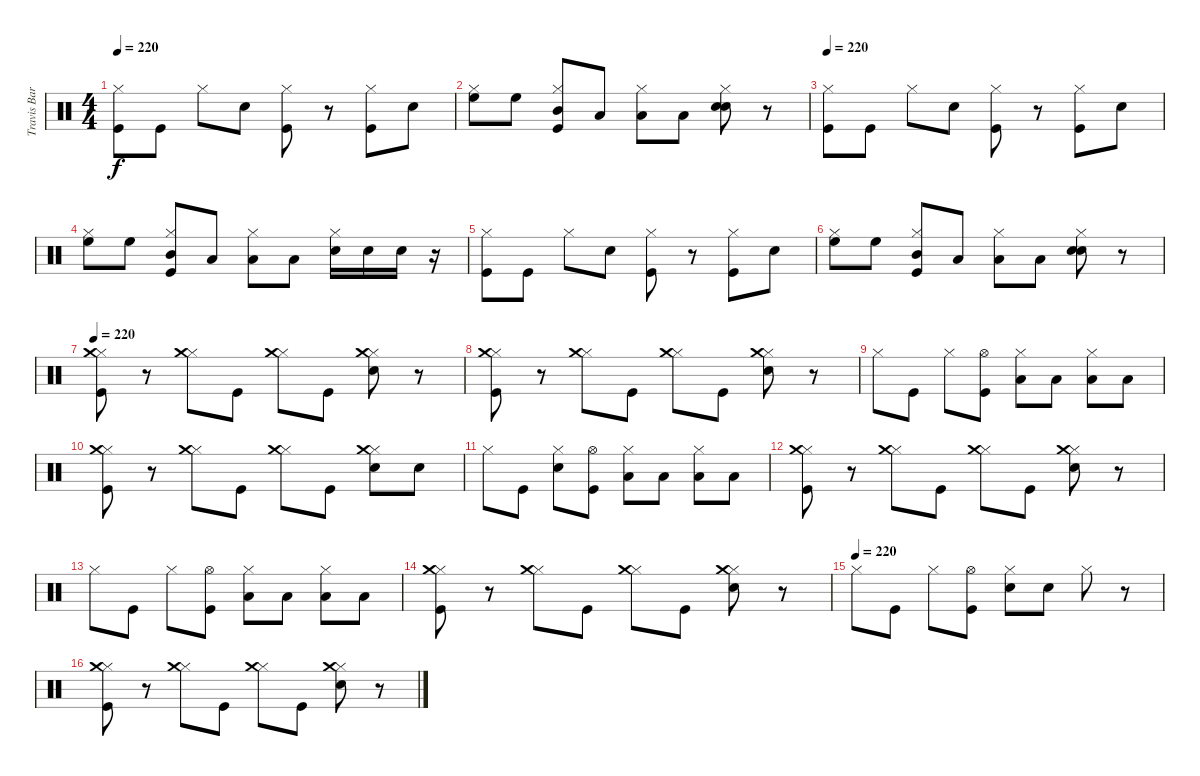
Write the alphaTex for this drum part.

\track ("Travis Barker" "Travis Bar") {instrument percussion}
\staff {score}
\articulation defaults
\ts (4 4)
\tempo 220
\clef neutral
\ks c
("Kick (hit)" "Hi-Hat (closed)").8{dy f} "Kick (hit)".8 "Hi-Hat (closed)".8 "Electric Snare (hit)".8 ("Kick (hit)" "Hi-Hat (closed)").8 r.8 ("Kick (hit)" "Hi-Hat (closed)").8 "Electric Snare (hit)".8 |
("High Floor Tom (hit)" "Hi-Hat (closed)").8 "High Floor Tom (hit)".8 ("Kick (hit)" "Mid Tom (hit)" "Hi-Hat (closed)").8 "Low Tom (hit)".8 ("Low Floor Tom (hit)" "Hi-Hat (closed)").8 "Low Floor Tom (hit)".8 ("Electric Snare (hit)" "Electric Snare (hit)" "Hi-Hat (closed)").8 r.8 |
\tempo 220
("Kick (hit)" "Hi-Hat (closed)").8 "Kick (hit)".8 "Hi-Hat (closed)".8 "Electric Snare (hit)".8 ("Kick (hit)" "Hi-Hat (closed)").8 r.8 ("Kick (hit)" "Hi-Hat (closed)").8 "Electric Snare (hit)".8 |
("High Floor Tom (hit)" "Hi-Hat (closed)").8 "High Floor Tom (hit)".8 ("Kick (hit)" "Mid Tom (hit)" "Hi-Hat (closed)").8 "Low Tom (hit)".8 ("Low Floor Tom (hit)" "Hi-Hat (closed)").8 "Low Floor Tom (hit)".8 ("Electric Snare (hit)" "Hi-Hat (closed)").16 "Electric Snare (hit)".16 "Electric Snare (hit)".16 r.16 |
("Kick (hit)" "Hi-Hat (closed)").8 "Kick (hit)".8 "Hi-Hat (closed)".8 "Electric Snare (hit)".8 ("Kick (hit)" "Hi-Hat (closed)").8 r.8 ("Kick (hit)" "Hi-Hat (closed)").8 "Electric Snare (hit)".8 |
("High Floor Tom (hit)" "Hi-Hat (closed)").8 "High Floor Tom (hit)".8 ("Kick (hit)" "Mid Tom (hit)" "Hi-Hat (closed)").8 "Low Tom (hit)".8 ("Low Floor Tom (hit)" "Hi-Hat (closed)").8 "Low Floor Tom (hit)".8 ("Electric Snare (hit)" "Electric Snare (hit)" "Hi-Hat (closed)").8 r.8 |
\tempo 220
("Kick (hit)" "Hi-Hat (closed)" "Crash medium (hit)").8 r.8 ("Hi-Hat (closed)" "Crash medium (hit)").8 "Kick (hit)".8 ("Hi-Hat (closed)" "Crash medium (hit)").8 "Kick (hit)".8 ("Electric Snare (hit)" "Hi-Hat (closed)" "Crash medium (hit)").8 r.8 |
("Kick (hit)" "Hi-Hat (closed)" "Crash medium (hit)").8 r.8 ("Hi-Hat (closed)" "Crash medium (hit)").8 "Kick (hit)".8 ("Hi-Hat (closed)" "Crash medium (hit)").8 "Kick (hit)".8 ("Electric Snare (hit)" "Hi-Hat (closed)" "Crash medium (hit)").8 r.8 |
"Hi-Hat (closed)".8 "Kick (hit)".8 "Hi-Hat (closed)".8 ("Kick (hit)" "Hi-Hat (open)").8 ("Low Tom (hit)" "Hi-Hat (closed)").8 "Low Tom (hit)".8 ("Low Floor Tom (hit)" "Hi-Hat (closed)").8 "Low Floor Tom (hit)".8 |
("Kick (hit)" "Hi-Hat (closed)" "Crash medium (hit)").8 r.8 ("Hi-Hat (closed)" "Crash medium (hit)").8 "Kick (hit)".8 ("Hi-Hat (closed)" "Crash medium (hit)").8 "Kick (hit)".8 ("Electric Snare (hit)" "Hi-Hat (closed)" "Crash medium (hit)").8 "Electric Snare (hit)".8 |
"Hi-Hat (closed)".8 "Kick (hit)".8 ("Electric Snare (hit)" "Hi-Hat (closed)").8 ("Kick (hit)" "Hi-Hat (open)").8 ("Low Tom (hit)" "Hi-Hat (closed)").8 "Low Tom (hit)".8 ("Low Floor Tom (hit)" "Hi-Hat (closed)").8 "Low Floor Tom (hit)".8 |
("Kick (hit)" "Hi-Hat (closed)" "Crash medium (hit)").8 r.8 ("Hi-Hat (closed)" "Crash medium (hit)").8 "Kick (hit)".8 ("Hi-Hat (closed)" "Crash medium (hit)").8 "Kick (hit)".8 ("Electric Snare (hit)" "Hi-Hat (closed)" "Crash medium (hit)").8 r.8 |
"Hi-Hat (closed)".8 "Kick (hit)".8 "Hi-Hat (closed)".8 ("Kick (hit)" "Hi-Hat (open)").8 ("Low Tom (hit)" "Hi-Hat (closed)").8 "Low Tom (hit)".8 ("Low Floor Tom (hit)" "Hi-Hat (closed)").8 "Low Floor Tom (hit)".8 |
("Kick (hit)" "Hi-Hat (closed)" "Crash medium (hit)").8 r.8 ("Hi-Hat (closed)" "Crash medium (hit)").8 "Kick (hit)".8 ("Hi-Hat (closed)" "Crash medium (hit)").8 "Kick (hit)".8 ("Electric Snare (hit)" "Hi-Hat (closed)" "Crash medium (hit)").8 r.8 |
\tempo (220)
"Hi-Hat (closed)".8 "Kick (hit)".8 "Hi-Hat (closed)".8 ("Kick (hit)" "Hi-Hat (open)").8 ("Electric Snare (hit)" "Hi-Hat (closed)").8 "Electric Snare (hit)".8 "Hi-Hat (closed)".8 r.8 |
("Kick (hit)" "Hi-Hat (closed)" "Crash medium (hit)").8 r.8 ("Hi-Hat (closed)" "Crash medium (hit)").8 "Kick (hit)".8 ("Hi-Hat (closed)" "Crash medium (hit)").8 "Kick (hit)".8 ("Electric Snare (hit)" "Hi-Hat (closed)" "Crash medium (hit)").8 r.8
